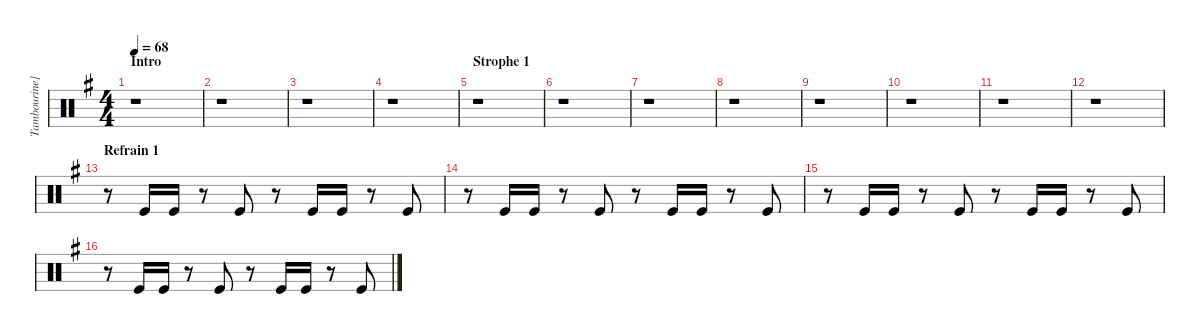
\hideDynamics
\bracketExtendMode groupsimilarinstruments
\firstSystemTrackNameMode fullname
\otherSystemsTrackNameMode fullname
\otherSystemsTrackNameOrientation horizontal
\track ("[Tambourine]" "Tamb.") {instrument percussion}
\staff {score}
\articulation defaults
\ts (4 4)
\section ("" "Intro")
\tempo 68
\clef neutral
\ks g
r.1{dy f} |
r.1 |
r.1 |
r.1 |
\section ("" "Strophe 1")
r.1 |
r.1 |
r.1 |
r.1 |
r.1 |
r.1 |
r.1 |
r.1 |
\section ("" "Refrain 1")
r.8 "Kick (hit)".16 "Kick (hit)".16 r.8 "Kick (hit)".8 r.8 "Kick (hit)".16 "Kick (hit)".16 r.8 "Kick (hit)".8 |
r.8 "Kick (hit)".16 "Kick (hit)".16 r.8 "Kick (hit)".8 r.8 "Kick (hit)".16 "Kick (hit)".16 r.8 "Kick (hit)".8 |
r.8 "Kick (hit)".16 "Kick (hit)".16 r.8 "Kick (hit)".8 r.8 "Kick (hit)".16 "Kick (hit)".16 r.8 "Kick (hit)".8 |
r.8 "Kick (hit)".16 "Kick (hit)".16 r.8 "Kick (hit)".8 r.8 "Kick (hit)".16 "Kick (hit)".16 r.8 "Kick (hit)".8
